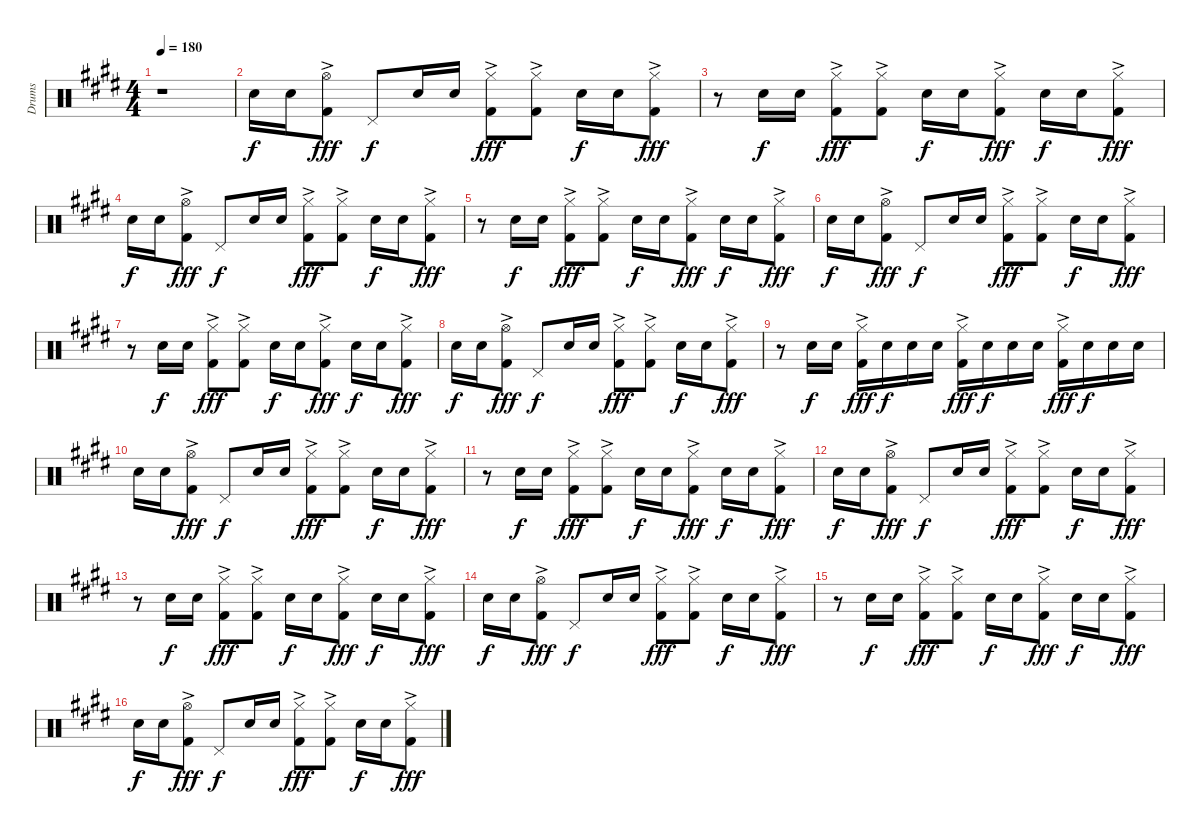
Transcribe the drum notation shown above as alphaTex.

\track ("Drums" "Drums") {instrument percussion}
\staff {score}
\articulation defaults
\ts (4 4)
\tempo 180
\clef neutral
\ks c#minor
r.1{dy f} |
"Snare (hit) 2".16 "Snare (hit) 2".16 ("Hi-Hat (open)"{ac} "Kick (hit) 2").8{dy fff} "Pedal Hi-Hat (hit)".8{dy f} "Snare (hit) 2".16 "Snare (hit) 2".16 ("Hi-Hat (closed)"{ac} "Kick (hit) 2").8{dy fff} ("Hi-Hat (closed)"{ac} "Kick (hit) 2").8 "Snare (hit) 2".16{dy f} "Snare (hit) 2".16 ("Hi-Hat (closed)"{ac} "Kick (hit) 2").8{dy fff} |
r.8 "Snare (hit) 2".16{dy f} "Snare (hit) 2".16 ("Hi-Hat (closed)"{ac} "Kick (hit) 2").8{dy fff} ("Hi-Hat (closed)"{ac} "Kick (hit) 2").8 "Snare (hit) 2".16{dy f} "Snare (hit) 2".16 ("Hi-Hat (closed)"{ac} "Kick (hit) 2").8{dy fff} "Snare (hit) 2".16{dy f} "Snare (hit) 2".16 ("Hi-Hat (closed)"{ac} "Kick (hit) 2").8{dy fff} |
"Snare (hit) 2".16{dy f} "Snare (hit) 2".16 ("Hi-Hat (open)"{ac} "Kick (hit) 2").8{dy fff} "Pedal Hi-Hat (hit)".8{dy f} "Snare (hit) 2".16 "Snare (hit) 2".16 ("Hi-Hat (closed)"{ac} "Kick (hit) 2").8{dy fff} ("Hi-Hat (closed)"{ac} "Kick (hit) 2").8 "Snare (hit) 2".16{dy f} "Snare (hit) 2".16 ("Hi-Hat (closed)"{ac} "Kick (hit) 2").8{dy fff} |
r.8 "Snare (hit) 2".16{dy f} "Snare (hit) 2".16 ("Hi-Hat (closed)"{ac} "Kick (hit) 2").8{dy fff} ("Hi-Hat (closed)"{ac} "Kick (hit) 2").8 "Snare (hit) 2".16{dy f} "Snare (hit) 2".16 ("Hi-Hat (closed)"{ac} "Kick (hit) 2").8{dy fff} "Snare (hit) 2".16{dy f} "Snare (hit) 2".16 ("Hi-Hat (closed)"{ac} "Kick (hit) 2").8{dy fff} |
"Snare (hit) 2".16{dy f} "Snare (hit) 2".16 ("Hi-Hat (open)"{ac} "Kick (hit) 2").8{dy fff} "Pedal Hi-Hat (hit)".8{dy f} "Snare (hit) 2".16 "Snare (hit) 2".16 ("Hi-Hat (closed)"{ac} "Kick (hit) 2").8{dy fff} ("Hi-Hat (closed)"{ac} "Kick (hit) 2").8 "Snare (hit) 2".16{dy f} "Snare (hit) 2".16 ("Hi-Hat (closed)"{ac} "Kick (hit) 2").8{dy fff} |
r.8 "Snare (hit) 2".16{dy f} "Snare (hit) 2".16 ("Hi-Hat (closed)"{ac} "Kick (hit) 2").8{dy fff} ("Hi-Hat (closed)"{ac} "Kick (hit) 2").8 "Snare (hit) 2".16{dy f} "Snare (hit) 2".16 ("Hi-Hat (closed)"{ac} "Kick (hit) 2").8{dy fff} "Snare (hit) 2".16{dy f} "Snare (hit) 2".16 ("Hi-Hat (closed)"{ac} "Kick (hit) 2").8{dy fff} |
"Snare (hit) 2".16{dy f} "Snare (hit) 2".16 ("Hi-Hat (open)"{ac} "Kick (hit) 2").8{dy fff} "Pedal Hi-Hat (hit)".8{dy f} "Snare (hit) 2".16 "Snare (hit) 2".16 ("Hi-Hat (closed)"{ac} "Kick (hit) 2").8{dy fff} ("Hi-Hat (closed)"{ac} "Kick (hit) 2").8 "Snare (hit) 2".16{dy f} "Snare (hit) 2".16 ("Hi-Hat (closed)"{ac} "Kick (hit) 2").8{dy fff} |
r.8 "Snare (hit) 2".16{dy f} "Snare (hit) 2".16 ("Hi-Hat (closed)"{ac} "Kick (hit) 2").16{dy fff} "Snare (hit) 2".16{dy f} "Snare (hit) 2".16 "Snare (hit) 2".16 ("Hi-Hat (closed)"{ac} "Kick (hit) 2").16{dy fff} "Snare (hit) 2".16{dy f} "Snare (hit) 2".16 "Snare (hit) 2".16 ("Hi-Hat (closed)"{ac} "Kick (hit) 2").16{dy fff} "Snare (hit) 2".16{dy f} "Snare (hit) 2".16 "Snare (hit) 2".16 |
"Snare (hit) 2".16 "Snare (hit) 2".16 ("Hi-Hat (open)"{ac} "Kick (hit) 2").8{dy fff} "Pedal Hi-Hat (hit)".8{dy f} "Snare (hit) 2".16 "Snare (hit) 2".16 ("Hi-Hat (closed)"{ac} "Kick (hit) 2").8{dy fff} ("Hi-Hat (closed)"{ac} "Kick (hit) 2").8 "Snare (hit) 2".16{dy f} "Snare (hit) 2".16 ("Hi-Hat (closed)"{ac} "Kick (hit) 2").8{dy fff} |
r.8 "Snare (hit) 2".16{dy f} "Snare (hit) 2".16 ("Hi-Hat (closed)"{ac} "Kick (hit) 2").8{dy fff} ("Hi-Hat (closed)"{ac} "Kick (hit) 2").8 "Snare (hit) 2".16{dy f} "Snare (hit) 2".16 ("Hi-Hat (closed)"{ac} "Kick (hit) 2").8{dy fff} "Snare (hit) 2".16{dy f} "Snare (hit) 2".16 ("Hi-Hat (closed)"{ac} "Kick (hit) 2").8{dy fff} |
"Snare (hit) 2".16{dy f} "Snare (hit) 2".16 ("Hi-Hat (open)"{ac} "Kick (hit) 2").8{dy fff} "Pedal Hi-Hat (hit)".8{dy f} "Snare (hit) 2".16 "Snare (hit) 2".16 ("Hi-Hat (closed)"{ac} "Kick (hit) 2").8{dy fff} ("Hi-Hat (closed)"{ac} "Kick (hit) 2").8 "Snare (hit) 2".16{dy f} "Snare (hit) 2".16 ("Hi-Hat (closed)"{ac} "Kick (hit) 2").8{dy fff} |
r.8 "Snare (hit) 2".16{dy f} "Snare (hit) 2".16 ("Hi-Hat (closed)"{ac} "Kick (hit) 2").8{dy fff} ("Hi-Hat (closed)"{ac} "Kick (hit) 2").8 "Snare (hit) 2".16{dy f} "Snare (hit) 2".16 ("Hi-Hat (closed)"{ac} "Kick (hit) 2").8{dy fff} "Snare (hit) 2".16{dy f} "Snare (hit) 2".16 ("Hi-Hat (closed)"{ac} "Kick (hit) 2").8{dy fff} |
"Snare (hit) 2".16{dy f} "Snare (hit) 2".16 ("Hi-Hat (open)"{ac} "Kick (hit) 2").8{dy fff} "Pedal Hi-Hat (hit)".8{dy f} "Snare (hit) 2".16 "Snare (hit) 2".16 ("Hi-Hat (closed)"{ac} "Kick (hit) 2").8{dy fff} ("Hi-Hat (closed)"{ac} "Kick (hit) 2").8 "Snare (hit) 2".16{dy f} "Snare (hit) 2".16 ("Hi-Hat (closed)"{ac} "Kick (hit) 2").8{dy fff} |
r.8 "Snare (hit) 2".16{dy f} "Snare (hit) 2".16 ("Hi-Hat (closed)"{ac} "Kick (hit) 2").8{dy fff} ("Hi-Hat (closed)"{ac} "Kick (hit) 2").8 "Snare (hit) 2".16{dy f} "Snare (hit) 2".16 ("Hi-Hat (closed)"{ac} "Kick (hit) 2").8{dy fff} "Snare (hit) 2".16{dy f} "Snare (hit) 2".16 ("Hi-Hat (closed)"{ac} "Kick (hit) 2").8{dy fff} |
"Snare (hit) 2".16{dy f} "Snare (hit) 2".16 ("Hi-Hat (open)"{ac} "Kick (hit) 2").8{dy fff} "Pedal Hi-Hat (hit)".8{dy f} "Snare (hit) 2".16 "Snare (hit) 2".16 ("Hi-Hat (closed)"{ac} "Kick (hit) 2").8{dy fff} ("Hi-Hat (closed)"{ac} "Kick (hit) 2").8 "Snare (hit) 2".16{dy f} "Snare (hit) 2".16 ("Hi-Hat (closed)"{ac} "Kick (hit) 2").8{dy fff}
